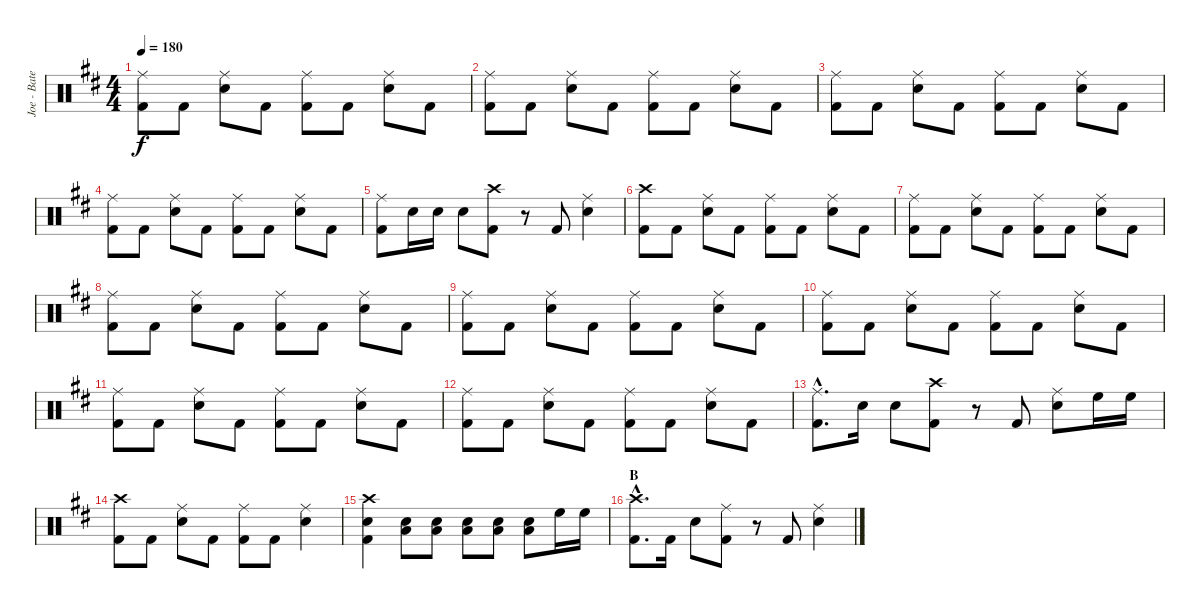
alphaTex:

\track ("Joe - Batería -" "Joe - Bate") {instrument percussion}
\staff {score}
\articulation defaults
\ts (4 4)
\tempo 180
\clef neutral
\ks bminor
("Ride (middle)" "Kick (hit) 2").8{dy f} "Kick (hit) 2".8 ("Ride (middle)" "Snare (hit) 2").8 "Kick (hit) 2".8 ("Ride (middle)" "Kick (hit) 2").8 "Kick (hit) 2".8 ("Ride (middle)" "Snare (hit) 2").8 "Kick (hit) 2".8 |
("Ride (middle)" "Kick (hit) 2").8 "Kick (hit) 2".8 ("Ride (middle)" "Snare (hit) 2").8 "Kick (hit) 2".8 ("Ride (middle)" "Kick (hit) 2").8 "Kick (hit) 2".8 ("Ride (middle)" "Snare (hit) 2").8 "Kick (hit) 2".8 |
("Ride (middle)" "Kick (hit) 2").8 "Kick (hit) 2".8 ("Ride (middle)" "Snare (hit) 2").8 "Kick (hit) 2".8 ("Ride (middle)" "Kick (hit) 2").8 "Kick (hit) 2".8 ("Ride (middle)" "Snare (hit) 2").8 "Kick (hit) 2".8 |
("Ride (middle)" "Kick (hit) 2").8 "Kick (hit) 2".8 ("Ride (middle)" "Snare (hit) 2").8 "Kick (hit) 2".8 ("Ride (middle)" "Kick (hit) 2").8 "Kick (hit) 2".8 ("Ride (middle)" "Snare (hit) 2").8 "Kick (hit) 2".8 |
("Ride (middle)" "Kick (hit) 2").8 "Snare (hit) 2".16 "Snare (hit) 2".16 "Snare (hit) 2".8 ("Crash high (hit)" "Kick (hit) 2").8 r.8 "Kick (hit) 2".8 ("Ride (middle)" "Snare (hit) 2").4 |
\section ("" "")
("Crash high (hit)" "Kick (hit) 2").8 "Kick (hit) 2".8 ("Ride (middle)" "Snare (hit) 2").8 "Kick (hit) 2".8 ("Ride (middle)" "Kick (hit) 2").8 "Kick (hit) 2".8 ("Ride (middle)" "Snare (hit) 2").8 "Kick (hit) 2".8 |
("Ride (middle)" "Kick (hit) 2").8 "Kick (hit) 2".8 ("Ride (middle)" "Snare (hit) 2").8 "Kick (hit) 2".8 ("Ride (middle)" "Kick (hit) 2").8 "Kick (hit) 2".8 ("Ride (middle)" "Snare (hit) 2").8 "Kick (hit) 2".8 |
("Ride (middle)" "Kick (hit) 2").8 "Kick (hit) 2".8 ("Ride (middle)" "Snare (hit) 2").8 "Kick (hit) 2".8 ("Ride (middle)" "Kick (hit) 2").8 "Kick (hit) 2".8 ("Ride (middle)" "Snare (hit) 2").8 "Kick (hit) 2".8 |
("Ride (middle)" "Kick (hit) 2").8 "Kick (hit) 2".8 ("Ride (middle)" "Snare (hit) 2").8 "Kick (hit) 2".8 ("Ride (middle)" "Kick (hit) 2").8 "Kick (hit) 2".8 ("Ride (middle)" "Snare (hit) 2").8 "Kick (hit) 2".8 |
("Ride (middle)" "Kick (hit) 2").8 "Kick (hit) 2".8 ("Ride (middle)" "Snare (hit) 2").8 "Kick (hit) 2".8 ("Ride (middle)" "Kick (hit) 2").8 "Kick (hit) 2".8 ("Ride (middle)" "Snare (hit) 2").8 "Kick (hit) 2".8 |
("Ride (middle)" "Kick (hit) 2").8 "Kick (hit) 2".8 ("Ride (middle)" "Snare (hit) 2").8 "Kick (hit) 2".8 ("Ride (middle)" "Kick (hit) 2").8 "Kick (hit) 2".8 ("Ride (middle)" "Snare (hit) 2").8 "Kick (hit) 2".8 |
("Ride (middle)" "Kick (hit) 2").8 "Kick (hit) 2".8 ("Ride (middle)" "Snare (hit) 2").8 "Kick (hit) 2".8 ("Ride (middle)" "Kick (hit) 2").8 "Kick (hit) 2".8 ("Ride (middle)" "Snare (hit) 2").8 "Kick (hit) 2".8 |
("Ride (middle)"{hac} "Kick (hit) 2"{hac}).8{d} "Snare (hit) 2".16 "Snare (hit) 2".8 ("Crash high (hit)" "Kick (hit) 2").8 r.8 "Kick (hit) 2".8 ("Ride (middle)" "Snare (hit) 2").8 "High Floor Tom (hit)".16 "High Floor Tom (hit)".16 |
("Crash high (hit)" "Kick (hit) 2").8 "Kick (hit) 2".8 ("Ride (middle)" "Snare (hit) 2").8 "Kick (hit) 2".8 ("Ride (middle)" "Kick (hit) 2").8 "Kick (hit) 2".8 ("Ride (middle)" "Snare (hit) 2").4 |
("Crash high (hit)" "Snare (hit) 2" "Kick (hit) 2").4 ("Snare (hit) 2" "Low Floor Tom (hit)").8 ("Snare (hit) 2" "Low Floor Tom (hit)").8 ("Snare (hit) 2" "Low Floor Tom (hit)").8 ("Snare (hit) 2" "Low Floor Tom (hit)").8 ("Snare (hit) 2" "Low Floor Tom (hit)").8 "High Floor Tom (hit)".16 "High Floor Tom (hit)".16 |
\section ("" "B")
("Crash high (hit)"{hac} "Kick (hit) 2"{hac}).8{d} "Kick (hit) 2".16 "Snare (hit) 2".8 ("Ride (middle)" "Kick (hit) 2").8 r.8 "Kick (hit) 2".8 ("Ride (middle)" "Snare (hit) 2").4
